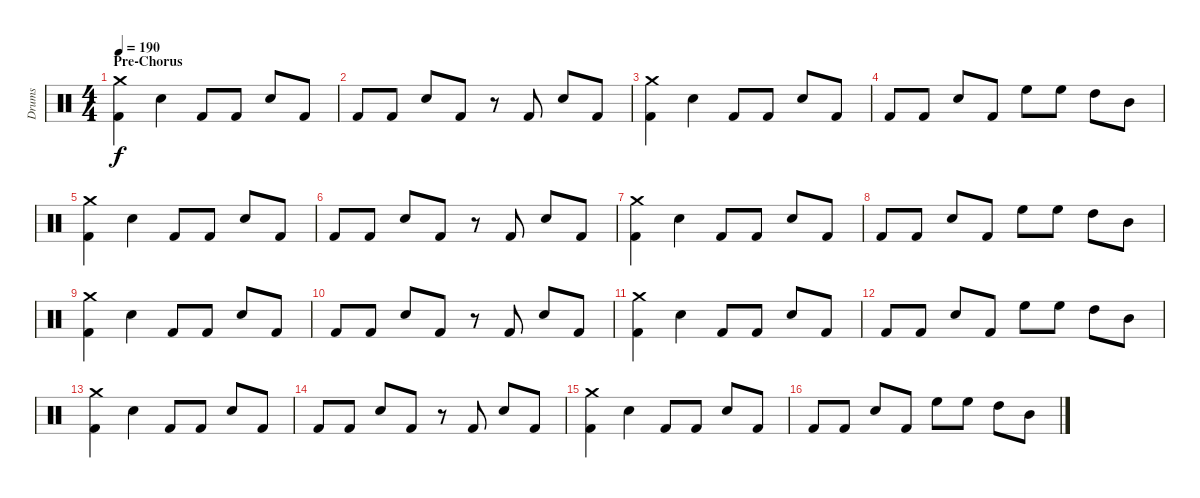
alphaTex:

\track ("Drums" "Drums") {instrument percussion}
\staff {score}
\articulation defaults
\ts (4 4)
\section ("" "Pre-Chorus")
\tempo 190
\clef neutral
\ks c
("Crash medium (hit)" "Kick (hit) 2").4{dy f} "Electric Snare (hit)".4 "Kick (hit) 2".8 "Kick (hit) 2".8 "Electric Snare (hit)".8 "Kick (hit) 2".8 |
"Kick (hit) 2".8 "Kick (hit) 2".8 "Electric Snare (hit)".8 "Kick (hit) 2".8 r.8 "Kick (hit) 2".8 "Electric Snare (hit)".8 "Kick (hit) 2".8 |
("Crash medium (hit)" "Kick (hit) 2").4 "Electric Snare (hit)".4 "Kick (hit) 2".8 "Kick (hit) 2".8 "Electric Snare (hit)".8 "Kick (hit) 2".8 |
"Kick (hit) 2".8 "Kick (hit) 2".8 "Electric Snare (hit)".8 "Kick (hit) 2".8 "High Floor Tom (hit)".8 "High Floor Tom (hit)".8 "High Tom (hit)".8 "Mid Tom (hit)".8 |
("Crash medium (hit)" "Kick (hit) 2").4 "Electric Snare (hit)".4 "Kick (hit) 2".8 "Kick (hit) 2".8 "Electric Snare (hit)".8 "Kick (hit) 2".8 |
"Kick (hit) 2".8 "Kick (hit) 2".8 "Electric Snare (hit)".8 "Kick (hit) 2".8 r.8 "Kick (hit) 2".8 "Electric Snare (hit)".8 "Kick (hit) 2".8 |
("Crash medium (hit)" "Kick (hit) 2").4 "Electric Snare (hit)".4 "Kick (hit) 2".8 "Kick (hit) 2".8 "Electric Snare (hit)".8 "Kick (hit) 2".8 |
"Kick (hit) 2".8 "Kick (hit) 2".8 "Electric Snare (hit)".8 "Kick (hit) 2".8 "High Floor Tom (hit)".8 "High Floor Tom (hit)".8 "High Tom (hit)".8 "Mid Tom (hit)".8 |
("Crash medium (hit)" "Kick (hit) 2").4 "Electric Snare (hit)".4 "Kick (hit) 2".8 "Kick (hit) 2".8 "Electric Snare (hit)".8 "Kick (hit) 2".8 |
"Kick (hit) 2".8 "Kick (hit) 2".8 "Electric Snare (hit)".8 "Kick (hit) 2".8 r.8 "Kick (hit) 2".8 "Electric Snare (hit)".8 "Kick (hit) 2".8 |
("Crash medium (hit)" "Kick (hit) 2").4 "Electric Snare (hit)".4 "Kick (hit) 2".8 "Kick (hit) 2".8 "Electric Snare (hit)".8 "Kick (hit) 2".8 |
"Kick (hit) 2".8 "Kick (hit) 2".8 "Electric Snare (hit)".8 "Kick (hit) 2".8 "High Floor Tom (hit)".8 "High Floor Tom (hit)".8 "High Tom (hit)".8 "Mid Tom (hit)".8 |
("Crash medium (hit)" "Kick (hit) 2").4 "Electric Snare (hit)".4 "Kick (hit) 2".8 "Kick (hit) 2".8 "Electric Snare (hit)".8 "Kick (hit) 2".8 |
"Kick (hit) 2".8 "Kick (hit) 2".8 "Electric Snare (hit)".8 "Kick (hit) 2".8 r.8 "Kick (hit) 2".8 "Electric Snare (hit)".8 "Kick (hit) 2".8 |
("Crash medium (hit)" "Kick (hit) 2").4 "Electric Snare (hit)".4 "Kick (hit) 2".8 "Kick (hit) 2".8 "Electric Snare (hit)".8 "Kick (hit) 2".8 |
"Kick (hit) 2".8 "Kick (hit) 2".8 "Electric Snare (hit)".8 "Kick (hit) 2".8 "High Floor Tom (hit)".8 "High Floor Tom (hit)".8 "High Tom (hit)".8 "Mid Tom (hit)".8
